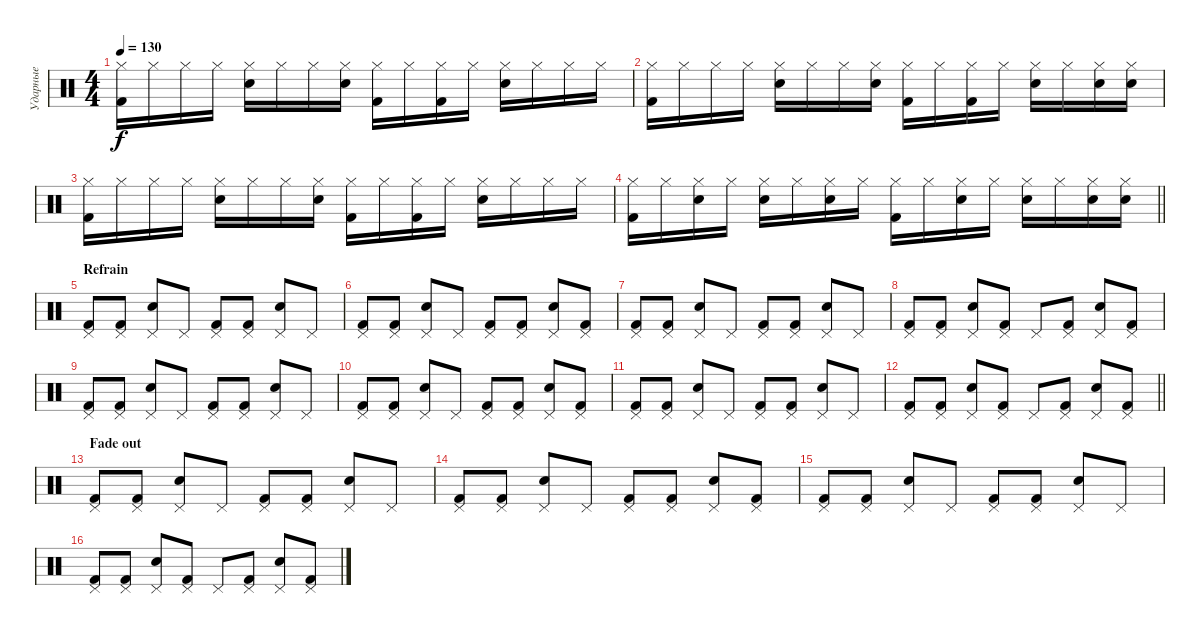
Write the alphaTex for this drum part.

\track ("Ударные" "Ударные") {instrument percussion}
\staff {score}
\articulation defaults
\ts (4 4)
\tempo 130
\clef neutral
\ks c
("Hi-Hat (closed)" "Kick (hit) 2").16{dy f} "Hi-Hat (closed)".16 "Hi-Hat (closed)".16 "Hi-Hat (closed)".16 ("Hi-Hat (closed)" "Electric Snare (hit)").16 "Hi-Hat (closed)".16 "Hi-Hat (closed)".16 ("Hi-Hat (closed)" "Electric Snare (hit)").16 ("Hi-Hat (closed)" "Kick (hit) 2").16 "Hi-Hat (closed)".16 ("Hi-Hat (closed)" "Kick (hit) 2").16 "Hi-Hat (closed)".16 ("Hi-Hat (closed)" "Electric Snare (hit)").16 "Hi-Hat (closed)".16 "Hi-Hat (closed)".16 "Hi-Hat (closed)".16 |
("Hi-Hat (closed)" "Kick (hit) 2").16 "Hi-Hat (closed)".16 "Hi-Hat (closed)".16 "Hi-Hat (closed)".16 ("Hi-Hat (closed)" "Electric Snare (hit)").16 "Hi-Hat (closed)".16 "Hi-Hat (closed)".16 ("Hi-Hat (closed)" "Electric Snare (hit)").16 ("Hi-Hat (closed)" "Kick (hit) 2").16 "Hi-Hat (closed)".16 ("Hi-Hat (closed)" "Kick (hit) 2").16 "Hi-Hat (closed)".16 ("Hi-Hat (closed)" "Electric Snare (hit)").16 "Hi-Hat (closed)".16 ("Hi-Hat (closed)" "Electric Snare (hit)").16 ("Hi-Hat (closed)" "Electric Snare (hit)").16 |
("Hi-Hat (closed)" "Kick (hit) 2").16 "Hi-Hat (closed)".16 "Hi-Hat (closed)".16 "Hi-Hat (closed)".16 ("Hi-Hat (closed)" "Electric Snare (hit)").16 "Hi-Hat (closed)".16 "Hi-Hat (closed)".16 ("Hi-Hat (closed)" "Electric Snare (hit)").16 ("Hi-Hat (closed)" "Kick (hit) 2").16 "Hi-Hat (closed)".16 ("Hi-Hat (closed)" "Kick (hit) 2").16 "Hi-Hat (closed)".16 ("Hi-Hat (closed)" "Electric Snare (hit)").16 "Hi-Hat (closed)".16 "Hi-Hat (closed)".16 "Hi-Hat (closed)".16 |
\barLineRight lightlight
("Hi-Hat (closed)" "Kick (hit) 2").16 "Hi-Hat (closed)".16 ("Hi-Hat (closed)" "Electric Snare (hit)").16 "Hi-Hat (closed)".16 ("Hi-Hat (closed)" "Electric Snare (hit)").16 "Hi-Hat (closed)".16 ("Hi-Hat (closed)" "Electric Snare (hit)").16 "Hi-Hat (closed)".16 ("Hi-Hat (closed)" "Kick (hit) 2").16 "Hi-Hat (closed)".16 ("Hi-Hat (closed)" "Electric Snare (hit)").16 "Hi-Hat (closed)".16 ("Hi-Hat (closed)" "Electric Snare (hit)").16 "Hi-Hat (closed)".16 ("Hi-Hat (closed)" "Electric Snare (hit)").16 ("Hi-Hat (closed)" "Electric Snare (hit)").16 |
\section ("" "Refrain")
("Pedal Hi-Hat (hit)" "Kick (hit) 2").8 ("Pedal Hi-Hat (hit)" "Kick (hit) 2").8 ("Pedal Hi-Hat (hit)" "Electric Snare (hit)").8 "Pedal Hi-Hat (hit)".8 ("Pedal Hi-Hat (hit)" "Kick (hit) 2").8 ("Pedal Hi-Hat (hit)" "Kick (hit) 2").8 ("Pedal Hi-Hat (hit)" "Electric Snare (hit)").8 "Pedal Hi-Hat (hit)".8 |
("Pedal Hi-Hat (hit)" "Kick (hit) 2").8 ("Pedal Hi-Hat (hit)" "Kick (hit) 2").8 ("Pedal Hi-Hat (hit)" "Electric Snare (hit)").8 "Pedal Hi-Hat (hit)".8 ("Pedal Hi-Hat (hit)" "Kick (hit) 2").8 ("Pedal Hi-Hat (hit)" "Kick (hit) 2").8 ("Pedal Hi-Hat (hit)" "Electric Snare (hit)").8 ("Pedal Hi-Hat (hit)" "Kick (hit) 2").8 |
("Pedal Hi-Hat (hit)" "Kick (hit) 2").8 ("Pedal Hi-Hat (hit)" "Kick (hit) 2").8 ("Pedal Hi-Hat (hit)" "Electric Snare (hit)").8 "Pedal Hi-Hat (hit)".8 ("Pedal Hi-Hat (hit)" "Kick (hit) 2").8 ("Pedal Hi-Hat (hit)" "Kick (hit) 2").8 ("Pedal Hi-Hat (hit)" "Electric Snare (hit)").8 "Pedal Hi-Hat (hit)".8 |
("Pedal Hi-Hat (hit)" "Kick (hit) 2").8 ("Pedal Hi-Hat (hit)" "Kick (hit) 2").8 ("Pedal Hi-Hat (hit)" "Electric Snare (hit)").8 ("Pedal Hi-Hat (hit)" "Kick (hit) 2").8 "Pedal Hi-Hat (hit)".8 ("Pedal Hi-Hat (hit)" "Kick (hit) 2").8 ("Pedal Hi-Hat (hit)" "Electric Snare (hit)").8 ("Pedal Hi-Hat (hit)" "Kick (hit) 2").8 |
("Pedal Hi-Hat (hit)" "Kick (hit) 2").8 ("Pedal Hi-Hat (hit)" "Kick (hit) 2").8 ("Pedal Hi-Hat (hit)" "Electric Snare (hit)").8 "Pedal Hi-Hat (hit)".8 ("Pedal Hi-Hat (hit)" "Kick (hit) 2").8 ("Pedal Hi-Hat (hit)" "Kick (hit) 2").8 ("Pedal Hi-Hat (hit)" "Electric Snare (hit)").8 "Pedal Hi-Hat (hit)".8 |
("Pedal Hi-Hat (hit)" "Kick (hit) 2").8 ("Pedal Hi-Hat (hit)" "Kick (hit) 2").8 ("Pedal Hi-Hat (hit)" "Electric Snare (hit)").8 "Pedal Hi-Hat (hit)".8 ("Pedal Hi-Hat (hit)" "Kick (hit) 2").8 ("Pedal Hi-Hat (hit)" "Kick (hit) 2").8 ("Pedal Hi-Hat (hit)" "Electric Snare (hit)").8 ("Pedal Hi-Hat (hit)" "Kick (hit) 2").8 |
("Pedal Hi-Hat (hit)" "Kick (hit) 2").8 ("Pedal Hi-Hat (hit)" "Kick (hit) 2").8 ("Pedal Hi-Hat (hit)" "Electric Snare (hit)").8 "Pedal Hi-Hat (hit)".8 ("Pedal Hi-Hat (hit)" "Kick (hit) 2").8 ("Pedal Hi-Hat (hit)" "Kick (hit) 2").8 ("Pedal Hi-Hat (hit)" "Electric Snare (hit)").8 "Pedal Hi-Hat (hit)".8 |
\barLineRight lightlight
("Pedal Hi-Hat (hit)" "Kick (hit) 2").8 ("Pedal Hi-Hat (hit)" "Kick (hit) 2").8 ("Pedal Hi-Hat (hit)" "Electric Snare (hit)").8 ("Pedal Hi-Hat (hit)" "Kick (hit) 2").8 "Pedal Hi-Hat (hit)".8 ("Pedal Hi-Hat (hit)" "Kick (hit) 2").8 ("Pedal Hi-Hat (hit)" "Electric Snare (hit)").8 ("Pedal Hi-Hat (hit)" "Kick (hit) 2").8 |
\section ("" "Fade out")
("Pedal Hi-Hat (hit)" "Kick (hit) 2").8{volume 0} ("Pedal Hi-Hat (hit)" "Kick (hit) 2").8 ("Pedal Hi-Hat (hit)" "Electric Snare (hit)").8 "Pedal Hi-Hat (hit)".8 ("Pedal Hi-Hat (hit)" "Kick (hit) 2").8 ("Pedal Hi-Hat (hit)" "Kick (hit) 2").8 ("Pedal Hi-Hat (hit)" "Electric Snare (hit)").8 "Pedal Hi-Hat (hit)".8 |
("Pedal Hi-Hat (hit)" "Kick (hit) 2").8 ("Pedal Hi-Hat (hit)" "Kick (hit) 2").8 ("Pedal Hi-Hat (hit)" "Electric Snare (hit)").8 "Pedal Hi-Hat (hit)".8 ("Pedal Hi-Hat (hit)" "Kick (hit) 2").8 ("Pedal Hi-Hat (hit)" "Kick (hit) 2").8 ("Pedal Hi-Hat (hit)" "Electric Snare (hit)").8 ("Pedal Hi-Hat (hit)" "Kick (hit) 2").8 |
("Pedal Hi-Hat (hit)" "Kick (hit) 2").8 ("Pedal Hi-Hat (hit)" "Kick (hit) 2").8 ("Pedal Hi-Hat (hit)" "Electric Snare (hit)").8 "Pedal Hi-Hat (hit)".8 ("Pedal Hi-Hat (hit)" "Kick (hit) 2").8 ("Pedal Hi-Hat (hit)" "Kick (hit) 2").8 ("Pedal Hi-Hat (hit)" "Electric Snare (hit)").8 "Pedal Hi-Hat (hit)".8 |
("Pedal Hi-Hat (hit)" "Kick (hit) 2").8 ("Pedal Hi-Hat (hit)" "Kick (hit) 2").8 ("Pedal Hi-Hat (hit)" "Electric Snare (hit)").8 ("Pedal Hi-Hat (hit)" "Kick (hit) 2").8 "Pedal Hi-Hat (hit)".8 ("Pedal Hi-Hat (hit)" "Kick (hit) 2").8 ("Pedal Hi-Hat (hit)" "Electric Snare (hit)").8 ("Pedal Hi-Hat (hit)" "Kick (hit) 2").8
